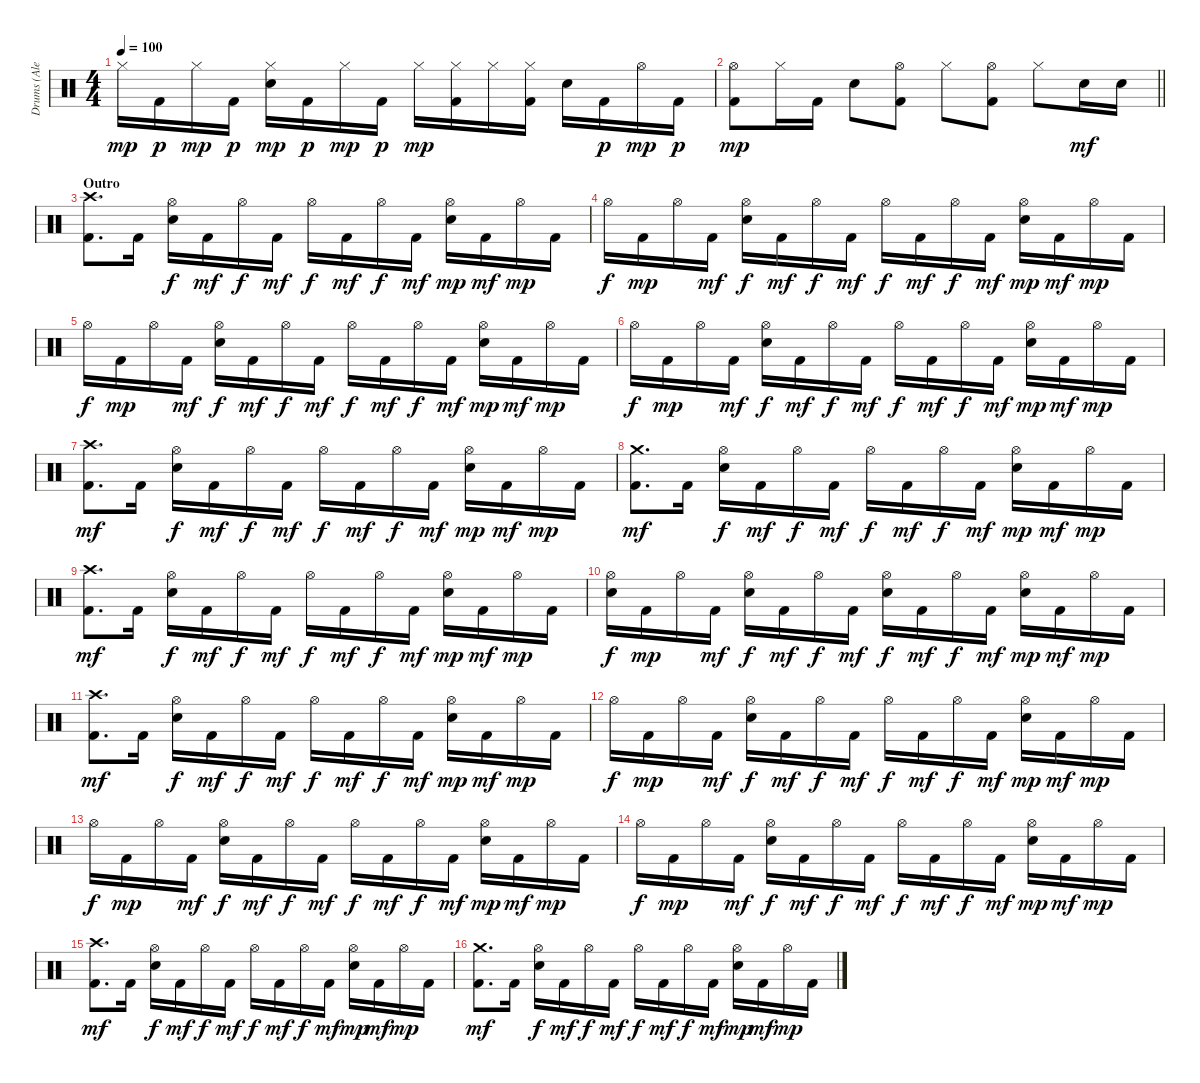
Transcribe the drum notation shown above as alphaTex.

\track ("Drums (Alex Van Halen)" "Drums (Ale") {instrument percussion}
\staff {score}
\articulation defaults
\ts (4 4)
\tempo 100
\clef neutral
\ks c "Hi-Hat (closed)".16{dy mp} "Kick (hit) 2".16{dy p} "Hi-Hat (closed)".16{dy mp} "Kick (hit) 2".16{dy p}
("Snare (hit) 2" "Hi-Hat (closed)").16{dy mp} "Kick (hit) 2".16{dy p} "Hi-Hat (closed)".16{dy mp} "Kick (hit) 2".16{dy p} "Hi-Hat (closed)".16{dy mp} ("Kick (hit) 2" "Hi-Hat (closed)").16 "Hi-Hat (closed)".16 ("Kick (hit) 2" "Hi-Hat (closed)").16 "Snare (hit) 2".16 "Kick (hit) 2".16{dy p} "Hi-Hat (open)".16{dy mp} "Kick (hit) 2".16{dy p} |
\barLineRight lightlight
("Kick (hit) 2" "Hi-Hat (open)").8{dy mp} "Hi-Hat (closed)".16 "Kick (hit) 2".16 "Snare (hit) 2".8 ("Kick (hit) 2" "Hi-Hat (open)").8 "Hi-Hat (closed)".8 ("Kick (hit) 2" "Hi-Hat (open)").8 "Hi-Hat (closed)".8 "Snare (hit) 2".16{dy mf} "Snare (hit) 2".16 |
\section ("" "Outro")
("Kick (hit) 2" "Crash high (hit)").8{d} "Kick (hit) 2".16 ("Snare (hit) 2" "Hi-Hat (open)").16{dy f} "Kick (hit) 2".16{dy mf} "Hi-Hat (open)".16{dy f} "Kick (hit) 2".16{dy mf} "Hi-Hat (open)".16{dy f} "Kick (hit) 2".16{dy mf} "Hi-Hat (open)".16{dy f} "Kick (hit) 2".16{dy mf} ("Snare (hit) 2" "Hi-Hat (open)").16{dy mp} "Kick (hit) 2".16{dy mf} "Hi-Hat (open)".16{dy mp} "Kick (hit) 2".16 |
"Hi-Hat (open)".16{dy f} "Kick (hit) 2".16{dy mp} "Hi-Hat (open)".16 "Kick (hit) 2".16{dy mf} ("Snare (hit) 2" "Hi-Hat (open)").16{dy f} "Kick (hit) 2".16{dy mf} "Hi-Hat (open)".16{dy f} "Kick (hit) 2".16{dy mf} "Hi-Hat (open)".16{dy f} "Kick (hit) 2".16{dy mf} "Hi-Hat (open)".16{dy f} "Kick (hit) 2".16{dy mf} ("Snare (hit) 2" "Hi-Hat (open)").16{dy mp} "Kick (hit) 2".16{dy mf} "Hi-Hat (open)".16{dy mp} "Kick (hit) 2".16 |
"Hi-Hat (open)".16{dy f} "Kick (hit) 2".16{dy mp} "Hi-Hat (open)".16 "Kick (hit) 2".16{dy mf} ("Snare (hit) 2" "Hi-Hat (open)").16{dy f} "Kick (hit) 2".16{dy mf} "Hi-Hat (open)".16{dy f} "Kick (hit) 2".16{dy mf} "Hi-Hat (open)".16{dy f} "Kick (hit) 2".16{dy mf} "Hi-Hat (open)".16{dy f} "Kick (hit) 2".16{dy mf} ("Snare (hit) 2" "Hi-Hat (open)").16{dy mp} "Kick (hit) 2".16{dy mf} "Hi-Hat (open)".16{dy mp} "Kick (hit) 2".16 |
"Hi-Hat (open)".16{dy f} "Kick (hit) 2".16{dy mp} "Hi-Hat (open)".16 "Kick (hit) 2".16{dy mf} ("Snare (hit) 2" "Hi-Hat (open)").16{dy f} "Kick (hit) 2".16{dy mf} "Hi-Hat (open)".16{dy f} "Kick (hit) 2".16{dy mf} "Hi-Hat (open)".16{dy f} "Kick (hit) 2".16{dy mf} "Hi-Hat (open)".16{dy f} "Kick (hit) 2".16{dy mf} ("Snare (hit) 2" "Hi-Hat (open)").16{dy mp} "Kick (hit) 2".16{dy mf} "Hi-Hat (open)".16{dy mp} "Kick (hit) 2".16 |
("Kick (hit) 2" "Crash high (hit)").8{d dy mf} "Kick (hit) 2".16 ("Snare (hit) 2" "Hi-Hat (open)").16{dy f} "Kick (hit) 2".16{dy mf} "Hi-Hat (open)".16{dy f} "Kick (hit) 2".16{dy mf} "Hi-Hat (open)".16{dy f} "Kick (hit) 2".16{dy mf} "Hi-Hat (open)".16{dy f} "Kick (hit) 2".16{dy mf} ("Snare (hit) 2" "Hi-Hat (open)").16{dy mp} "Kick (hit) 2".16{dy mf} "Hi-Hat (open)".16{dy mp} "Kick (hit) 2".16 |
("Kick (hit) 2" "Crash medium (hit)").8{d dy mf} "Kick (hit) 2".16 ("Snare (hit) 2" "Hi-Hat (open)").16{dy f} "Kick (hit) 2".16{dy mf} "Hi-Hat (open)".16{dy f} "Kick (hit) 2".16{dy mf} "Hi-Hat (open)".16{dy f} "Kick (hit) 2".16{dy mf} "Hi-Hat (open)".16{dy f} "Kick (hit) 2".16{dy mf} ("Snare (hit) 2" "Hi-Hat (open)").16{dy mp} "Kick (hit) 2".16{dy mf} "Hi-Hat (open)".16{dy mp} "Kick (hit) 2".16 |
("Kick (hit) 2" "Crash high (hit)").8{d dy mf} "Kick (hit) 2".16 ("Snare (hit) 2" "Hi-Hat (open)").16{dy f} "Kick (hit) 2".16{dy mf} "Hi-Hat (open)".16{dy f} "Kick (hit) 2".16{dy mf} "Hi-Hat (open)".16{dy f} "Kick (hit) 2".16{dy mf} "Hi-Hat (open)".16{dy f} "Kick (hit) 2".16{dy mf} ("Snare (hit) 2" "Hi-Hat (open)").16{dy mp} "Kick (hit) 2".16{dy mf} "Hi-Hat (open)".16{dy mp} "Kick (hit) 2".16 |
("Snare (hit) 2" "Hi-Hat (open)").16{dy f} "Kick (hit) 2".16{dy mp} "Hi-Hat (open)".16 "Kick (hit) 2".16{dy mf} ("Snare (hit) 2" "Hi-Hat (open)").16{dy f} "Kick (hit) 2".16{dy mf} "Hi-Hat (open)".16{dy f} "Kick (hit) 2".16{dy mf} ("Snare (hit) 2" "Hi-Hat (open)").16{dy f} "Kick (hit) 2".16{dy mf} "Hi-Hat (open)".16{dy f} "Kick (hit) 2".16{dy mf} ("Snare (hit) 2" "Hi-Hat (open)").16{dy mp} "Kick (hit) 2".16{dy mf} "Hi-Hat (open)".16{dy mp} "Kick (hit) 2".16 |
("Kick (hit) 2" "Crash high (hit)").8{d dy mf} "Kick (hit) 2".16 ("Snare (hit) 2" "Hi-Hat (open)").16{dy f} "Kick (hit) 2".16{dy mf} "Hi-Hat (open)".16{dy f} "Kick (hit) 2".16{dy mf} "Hi-Hat (open)".16{dy f} "Kick (hit) 2".16{dy mf} "Hi-Hat (open)".16{dy f} "Kick (hit) 2".16{dy mf} ("Snare (hit) 2" "Hi-Hat (open)").16{dy mp} "Kick (hit) 2".16{dy mf} "Hi-Hat (open)".16{dy mp} "Kick (hit) 2".16 |
"Hi-Hat (open)".16{dy f} "Kick (hit) 2".16{dy mp} "Hi-Hat (open)".16 "Kick (hit) 2".16{dy mf} ("Snare (hit) 2" "Hi-Hat (open)").16{dy f} "Kick (hit) 2".16{dy mf} "Hi-Hat (open)".16{dy f} "Kick (hit) 2".16{dy mf} "Hi-Hat (open)".16{dy f} "Kick (hit) 2".16{dy mf} "Hi-Hat (open)".16{dy f} "Kick (hit) 2".16{dy mf} ("Snare (hit) 2" "Hi-Hat (open)").16{dy mp} "Kick (hit) 2".16{dy mf} "Hi-Hat (open)".16{dy mp} "Kick (hit) 2".16 |
"Hi-Hat (open)".16{dy f} "Kick (hit) 2".16{dy mp} "Hi-Hat (open)".16 "Kick (hit) 2".16{dy mf} ("Snare (hit) 2" "Hi-Hat (open)").16{dy f} "Kick (hit) 2".16{dy mf} "Hi-Hat (open)".16{dy f} "Kick (hit) 2".16{dy mf} "Hi-Hat (open)".16{dy f} "Kick (hit) 2".16{dy mf} "Hi-Hat (open)".16{dy f} "Kick (hit) 2".16{dy mf} ("Snare (hit) 2" "Hi-Hat (open)").16{dy mp} "Kick (hit) 2".16{dy mf} "Hi-Hat (open)".16{dy mp} "Kick (hit) 2".16 |
"Hi-Hat (open)".16{dy f} "Kick (hit) 2".16{dy mp} "Hi-Hat (open)".16 "Kick (hit) 2".16{dy mf} ("Snare (hit) 2" "Hi-Hat (open)").16{dy f} "Kick (hit) 2".16{dy mf} "Hi-Hat (open)".16{dy f} "Kick (hit) 2".16{dy mf} "Hi-Hat (open)".16{dy f} "Kick (hit) 2".16{dy mf} "Hi-Hat (open)".16{dy f} "Kick (hit) 2".16{dy mf} ("Snare (hit) 2" "Hi-Hat (open)").16{dy mp} "Kick (hit) 2".16{dy mf} "Hi-Hat (open)".16{dy mp} "Kick (hit) 2".16 |
("Kick (hit) 2" "Crash high (hit)").8{d dy mf} "Kick (hit) 2".16 ("Snare (hit) 2" "Hi-Hat (open)").16{dy f} "Kick (hit) 2".16{dy mf} "Hi-Hat (open)".16{dy f} "Kick (hit) 2".16{dy mf} "Hi-Hat (open)".16{dy f} "Kick (hit) 2".16{dy mf} "Hi-Hat (open)".16{dy f} "Kick (hit) 2".16{dy mf} ("Snare (hit) 2" "Hi-Hat (open)").16{dy mp} "Kick (hit) 2".16{dy mf} "Hi-Hat (open)".16{dy mp} "Kick (hit) 2".16 |
("Kick (hit) 2" "Crash medium (hit)").8{d dy mf} "Kick (hit) 2".16 ("Snare (hit) 2" "Hi-Hat (open)").16{dy f} "Kick (hit) 2".16{dy mf} "Hi-Hat (open)".16{dy f} "Kick (hit) 2".16{dy mf} "Hi-Hat (open)".16{dy f} "Kick (hit) 2".16{dy mf} "Hi-Hat (open)".16{dy f} "Kick (hit) 2".16{dy mf} ("Snare (hit) 2" "Hi-Hat (open)").16{dy mp} "Kick (hit) 2".16{dy mf} "Hi-Hat (open)".16{dy mp} "Kick (hit) 2".16
